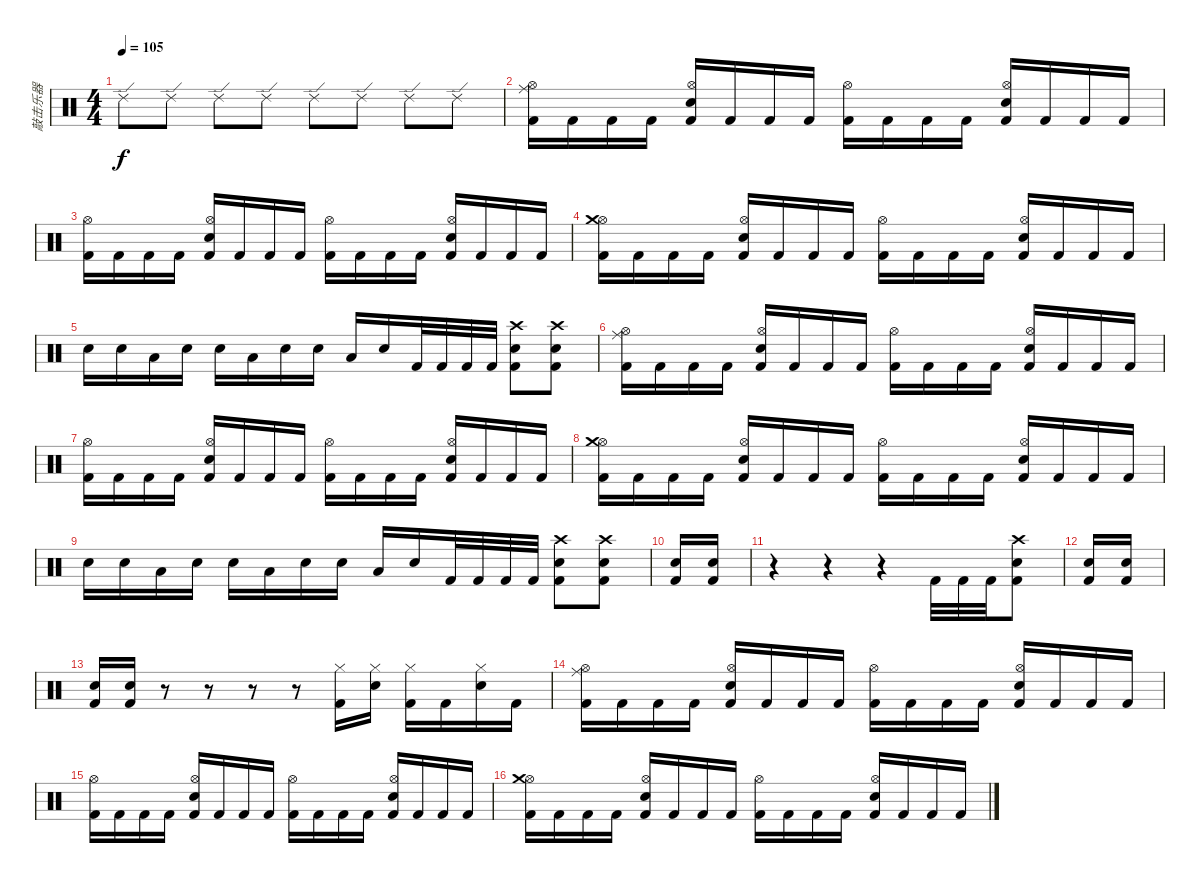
\track ("敲击乐器" "敲击乐器") {instrument percussion}
\staff {score}
\articulation defaults
\ts (4 4)
\tempo 105
\clef neutral
\ks c "Ride (edge) 2".8{dy f} "Ride (edge) 2".8 "Ride (edge) 2".8 "Ride (edge) 2".8 "Ride (edge) 2".8 "Ride (edge) 2".8 "Ride (edge) 2".8 "Ride (edge) 2".8
|
("Kick (hit) 2" "Hi-Hat (open)" "Ride (middle)").16 "Kick (hit) 2".16 "Kick (hit) 2".16 "Kick (hit) 2".16 ("Kick (hit) 2" "Electric Snare (hit)" "Hi-Hat (open)").16 "Kick (hit) 2".16 "Kick (hit) 2".16 "Kick (hit) 2".16 ("Kick (hit) 2" "Hi-Hat (open)").16 "Kick (hit) 2".16 "Kick (hit) 2".16 "Kick (hit) 2".16 ("Kick (hit) 2" "Electric Snare (hit)" "Hi-Hat (open)").16 "Kick (hit) 2".16 "Kick (hit) 2".16 "Kick (hit) 2".16 |
("Kick (hit) 2" "Hi-Hat (open)").16 "Kick (hit) 2".16 "Kick (hit) 2".16 "Kick (hit) 2".16 ("Kick (hit) 2" "Electric Snare (hit)" "Hi-Hat (open)").16 "Kick (hit) 2".16 "Kick (hit) 2".16 "Kick (hit) 2".16 ("Kick (hit) 2" "Hi-Hat (open)").16 "Kick (hit) 2".16 "Kick (hit) 2".16 "Kick (hit) 2".16 ("Kick (hit) 2" "Electric Snare (hit)" "Hi-Hat (open)").16 "Kick (hit) 2".16 "Kick (hit) 2".16 "Kick (hit) 2".16 |
("Kick (hit) 2" "Hi-Hat (open)" "Crash medium (hit)").16 "Kick (hit) 2".16 "Kick (hit) 2".16 "Kick (hit) 2".16 ("Kick (hit) 2" "Electric Snare (hit)" "Hi-Hat (open)").16 "Kick (hit) 2".16 "Kick (hit) 2".16 "Kick (hit) 2".16 ("Kick (hit) 2" "Hi-Hat (open)").16 "Kick (hit) 2".16 "Kick (hit) 2".16 "Kick (hit) 2".16 ("Kick (hit) 2" "Electric Snare (hit)" "Hi-Hat (open)").16 "Kick (hit) 2".16 "Kick (hit) 2".16 "Kick (hit) 2".16 |
"Electric Snare (hit)".16 "Electric Snare (hit)".16 "Low Tom (hit)".16 "Electric Snare (hit)".16 "Electric Snare (hit)".16 "Low Tom (hit)".16 "Electric Snare (hit)".16 "Electric Snare (hit)".16 "Low Tom (hit)".16 "Electric Snare (hit)".16 "Kick (hit) 2".32 "Kick (hit) 2".32 "Kick (hit) 2".32 "Kick (hit) 2".32 ("Kick (hit) 2" "Electric Snare (hit)" "Crash high (hit)").8 ("Kick (hit) 2" "Electric Snare (hit)" "Crash high (hit)").8 |
("Kick (hit) 2" "Hi-Hat (open)" "Ride (middle)").16 "Kick (hit) 2".16 "Kick (hit) 2".16 "Kick (hit) 2".16 ("Kick (hit) 2" "Electric Snare (hit)" "Hi-Hat (open)").16 "Kick (hit) 2".16 "Kick (hit) 2".16 "Kick (hit) 2".16 ("Kick (hit) 2" "Hi-Hat (open)").16 "Kick (hit) 2".16 "Kick (hit) 2".16 "Kick (hit) 2".16 ("Kick (hit) 2" "Electric Snare (hit)" "Hi-Hat (open)").16 "Kick (hit) 2".16 "Kick (hit) 2".16 "Kick (hit) 2".16 |
("Kick (hit) 2" "Hi-Hat (open)").16 "Kick (hit) 2".16 "Kick (hit) 2".16 "Kick (hit) 2".16 ("Kick (hit) 2" "Electric Snare (hit)" "Hi-Hat (open)").16 "Kick (hit) 2".16 "Kick (hit) 2".16 "Kick (hit) 2".16 ("Kick (hit) 2" "Hi-Hat (open)").16 "Kick (hit) 2".16 "Kick (hit) 2".16 "Kick (hit) 2".16 ("Kick (hit) 2" "Electric Snare (hit)" "Hi-Hat (open)").16 "Kick (hit) 2".16 "Kick (hit) 2".16 "Kick (hit) 2".16 |
("Kick (hit) 2" "Hi-Hat (open)" "Crash medium (hit)").16 "Kick (hit) 2".16 "Kick (hit) 2".16 "Kick (hit) 2".16 ("Kick (hit) 2" "Electric Snare (hit)" "Hi-Hat (open)").16 "Kick (hit) 2".16 "Kick (hit) 2".16 "Kick (hit) 2".16 ("Kick (hit) 2" "Hi-Hat (open)").16 "Kick (hit) 2".16 "Kick (hit) 2".16 "Kick (hit) 2".16 ("Kick (hit) 2" "Electric Snare (hit)" "Hi-Hat (open)").16 "Kick (hit) 2".16 "Kick (hit) 2".16 "Kick (hit) 2".16 |
"Electric Snare (hit)".16 "Electric Snare (hit)".16 "Low Tom (hit)".16 "Electric Snare (hit)".16 "Electric Snare (hit)".16 "Low Tom (hit)".16 "Electric Snare (hit)".16 "Electric Snare (hit)".16 "Low Tom (hit)".16 "Electric Snare (hit)".16 "Kick (hit) 2".32 "Kick (hit) 2".32 "Kick (hit) 2".32 "Kick (hit) 2".32 ("Kick (hit) 2" "Electric Snare (hit)" "Crash high (hit)").8 ("Kick (hit) 2" "Electric Snare (hit)" "Crash high (hit)").8 |
("Electric Snare (hit)" "Kick (hit) 2").16 ("Electric Snare (hit)" "Kick (hit) 2").16 |
r.4 r.4 r.4 "Kick (hit) 2".32 "Kick (hit) 2".32 "Kick (hit) 2".32 ("Kick (hit) 2" "Electric Snare (hit)" "Crash high (hit)").8 |
("Electric Snare (hit)" "Kick (hit) 2").16 ("Electric Snare (hit)" "Kick (hit) 2").16 |
("Electric Snare (hit)" "Kick (hit) 2").16 ("Electric Snare (hit)" "Kick (hit) 2").16 r.8 r.8 r.8 r.8 ("Hi-Hat (closed)" "Kick (hit) 2").16 ("Hi-Hat (closed)" "Snare (hit) 2").16 ("Hi-Hat (closed)" "Kick (hit) 2").16 "Kick (hit) 2".16 ("Hi-Hat (closed)" "Snare (hit) 2").16 "Kick (hit) 2".16 |
("Kick (hit) 2" "Hi-Hat (open)" "Ride (middle)").16 "Kick (hit) 2".16 "Kick (hit) 2".16 "Kick (hit) 2".16 ("Kick (hit) 2" "Electric Snare (hit)" "Hi-Hat (open)").16 "Kick (hit) 2".16 "Kick (hit) 2".16 "Kick (hit) 2".16 ("Kick (hit) 2" "Hi-Hat (open)").16 "Kick (hit) 2".16 "Kick (hit) 2".16 "Kick (hit) 2".16 ("Kick (hit) 2" "Electric Snare (hit)" "Hi-Hat (open)").16 "Kick (hit) 2".16 "Kick (hit) 2".16 "Kick (hit) 2".16 |
("Kick (hit) 2" "Hi-Hat (open)").16 "Kick (hit) 2".16 "Kick (hit) 2".16 "Kick (hit) 2".16 ("Kick (hit) 2" "Electric Snare (hit)" "Hi-Hat (open)").16 "Kick (hit) 2".16 "Kick (hit) 2".16 "Kick (hit) 2".16 ("Kick (hit) 2" "Hi-Hat (open)").16 "Kick (hit) 2".16 "Kick (hit) 2".16 "Kick (hit) 2".16 ("Kick (hit) 2" "Electric Snare (hit)" "Hi-Hat (open)").16 "Kick (hit) 2".16 "Kick (hit) 2".16 "Kick (hit) 2".16 |
("Kick (hit) 2" "Hi-Hat (open)" "Crash medium (hit)").16 "Kick (hit) 2".16 "Kick (hit) 2".16 "Kick (hit) 2".16 ("Kick (hit) 2" "Electric Snare (hit)" "Hi-Hat (open)").16 "Kick (hit) 2".16 "Kick (hit) 2".16 "Kick (hit) 2".16 ("Kick (hit) 2" "Hi-Hat (open)").16 "Kick (hit) 2".16 "Kick (hit) 2".16 "Kick (hit) 2".16 ("Kick (hit) 2" "Electric Snare (hit)" "Hi-Hat (open)").16 "Kick (hit) 2".16 "Kick (hit) 2".16 "Kick (hit) 2".16
